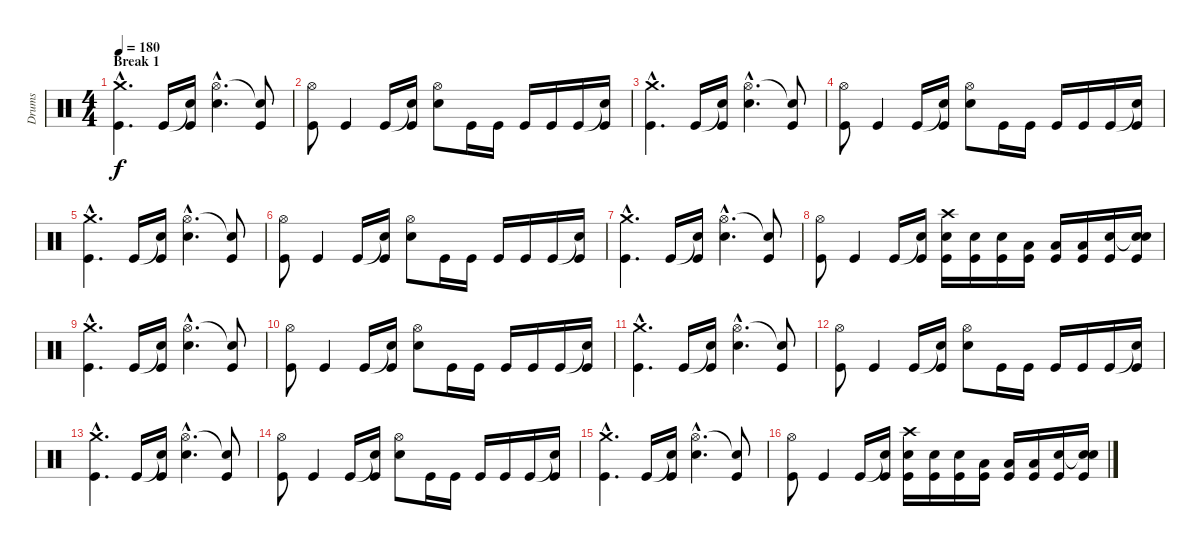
\track ("Drums" "Drums") {instrument percussion}
\staff {score}
\articulation defaults
\ts (4 4)
\section ("" "Break 1")
\tempo 180
\clef neutral
\ks c
("Crash medium (hit)"{hac} "Kick (hit)"{hac}).4{d dy f} "Kick (hit)".16 ("Snare (hit)"{t} "Kick (hit)").16 ("Hi-Hat (open)"{hac} "Electric Snare (hit)"{hac}).4{d} ("Snare (hit)"{t} "Kick (hit)").8 |
("Hi-Hat (open)" "Kick (hit)").8 "Kick (hit)".4 "Kick (hit)".16 ("Snare (hit)"{t} "Kick (hit)").16 ("Hi-Hat (open)" "Electric Snare (hit)").8 "Kick (hit)".16 "Kick (hit)".16 "Kick (hit)".16 "Kick (hit)".16 "Kick (hit)".16 ("Snare (hit)"{t} "Kick (hit)").16 |
("Crash medium (hit)"{hac} "Kick (hit)"{hac}).4{d} "Kick (hit)".16 ("Snare (hit)"{t} "Kick (hit)").16 ("Hi-Hat (open)"{hac} "Electric Snare (hit)"{hac}).4{d} ("Snare (hit)"{t} "Kick (hit)").8 |
("Hi-Hat (open)" "Kick (hit)").8 "Kick (hit)".4 "Kick (hit)".16 ("Snare (hit)"{t} "Kick (hit)").16 ("Hi-Hat (open)" "Electric Snare (hit)").8 "Kick (hit)".16 "Kick (hit)".16 "Kick (hit)".16 "Kick (hit)".16 "Kick (hit)".16 ("Snare (hit)"{t} "Kick (hit)").16 |
("Crash medium (hit)"{hac} "Kick (hit)"{hac}).4{d} "Kick (hit)".16 ("Snare (hit)"{t} "Kick (hit)").16 ("Hi-Hat (open)"{hac} "Electric Snare (hit)"{hac}).4{d} ("Snare (hit)"{t} "Kick (hit)").8 |
("Hi-Hat (open)" "Kick (hit)").8 "Kick (hit)".4 "Kick (hit)".16 ("Snare (hit)"{t} "Kick (hit)").16 ("Hi-Hat (open)" "Electric Snare (hit)").8 "Kick (hit)".16 "Kick (hit)".16 "Kick (hit)".16 "Kick (hit)".16 "Kick (hit)".16 ("Snare (hit)"{t} "Kick (hit)").16 |
("Crash medium (hit)"{hac} "Kick (hit)"{hac}).4{d} "Kick (hit)".16 ("Snare (hit)"{t} "Kick (hit)").16 ("Hi-Hat (open)"{hac} "Electric Snare (hit)"{hac}).4{d} ("Snare (hit)"{t} "Kick (hit)").8 |
("Hi-Hat (open)" "Kick (hit)").8 "Kick (hit)".4 "Kick (hit)".16 ("Snare (hit)"{t} "Kick (hit)").16 ("Crash high (hit)" "Electric Snare (hit)" "Kick (hit)").16 ("Electric Snare (hit)" "Kick (hit)").16 ("Electric Snare (hit)" "Kick (hit)").16 ("Low Floor Tom (hit)" "Kick (hit)").16 ("Low Floor Tom (hit)" "Kick (hit)").16 ("Low Floor Tom (hit)" "Kick (hit)").16 ("Electric Snare (hit)" "Kick (hit)").16 ("Snare (hit)"{t} "Electric Snare (hit)" "Kick (hit)").16 |
("Crash medium (hit)"{hac} "Kick (hit)"{hac}).4{d} "Kick (hit)".16 ("Snare (hit)"{t} "Kick (hit)").16 ("Hi-Hat (open)"{hac} "Electric Snare (hit)"{hac}).4{d} ("Snare (hit)"{t} "Kick (hit)").8 |
("Hi-Hat (open)" "Kick (hit)").8 "Kick (hit)".4 "Kick (hit)".16 ("Snare (hit)"{t} "Kick (hit)").16 ("Hi-Hat (open)" "Electric Snare (hit)").8 "Kick (hit)".16 "Kick (hit)".16 "Kick (hit)".16 "Kick (hit)".16 "Kick (hit)".16 ("Snare (hit)"{t} "Kick (hit)").16 |
("Crash medium (hit)"{hac} "Kick (hit)"{hac}).4{d} "Kick (hit)".16 ("Snare (hit)"{t} "Kick (hit)").16 ("Hi-Hat (open)"{hac} "Electric Snare (hit)"{hac}).4{d} ("Snare (hit)"{t} "Kick (hit)").8 |
("Hi-Hat (open)" "Kick (hit)").8 "Kick (hit)".4 "Kick (hit)".16 ("Snare (hit)"{t} "Kick (hit)").16 ("Hi-Hat (open)" "Electric Snare (hit)").8 "Kick (hit)".16 "Kick (hit)".16 "Kick (hit)".16 "Kick (hit)".16 "Kick (hit)".16 ("Snare (hit)"{t} "Kick (hit)").16 |
("Crash medium (hit)"{hac} "Kick (hit)"{hac}).4{d} "Kick (hit)".16 ("Snare (hit)"{t} "Kick (hit)").16 ("Hi-Hat (open)"{hac} "Electric Snare (hit)"{hac}).4{d} ("Snare (hit)"{t} "Kick (hit)").8 |
("Hi-Hat (open)" "Kick (hit)").8 "Kick (hit)".4 "Kick (hit)".16 ("Snare (hit)"{t} "Kick (hit)").16 ("Hi-Hat (open)" "Electric Snare (hit)").8 "Kick (hit)".16 "Kick (hit)".16 "Kick (hit)".16 "Kick (hit)".16 "Kick (hit)".16 ("Snare (hit)"{t} "Kick (hit)").16 |
("Crash medium (hit)"{hac} "Kick (hit)"{hac}).4{d} "Kick (hit)".16 ("Snare (hit)"{t} "Kick (hit)").16 ("Hi-Hat (open)"{hac} "Electric Snare (hit)"{hac}).4{d} ("Snare (hit)"{t} "Kick (hit)").8 |
("Hi-Hat (open)" "Kick (hit)").8 "Kick (hit)".4 "Kick (hit)".16 ("Snare (hit)"{t} "Kick (hit)").16 ("Crash high (hit)" "Electric Snare (hit)" "Kick (hit)").16 ("Electric Snare (hit)" "Kick (hit)").16 ("Electric Snare (hit)" "Kick (hit)").16 ("Low Floor Tom (hit)" "Kick (hit)").16 ("Low Floor Tom (hit)" "Kick (hit)").16 ("Low Floor Tom (hit)" "Kick (hit)").16 ("Electric Snare (hit)" "Kick (hit)").16 ("Snare (hit)"{t} "Electric Snare (hit)" "Kick (hit)").16
